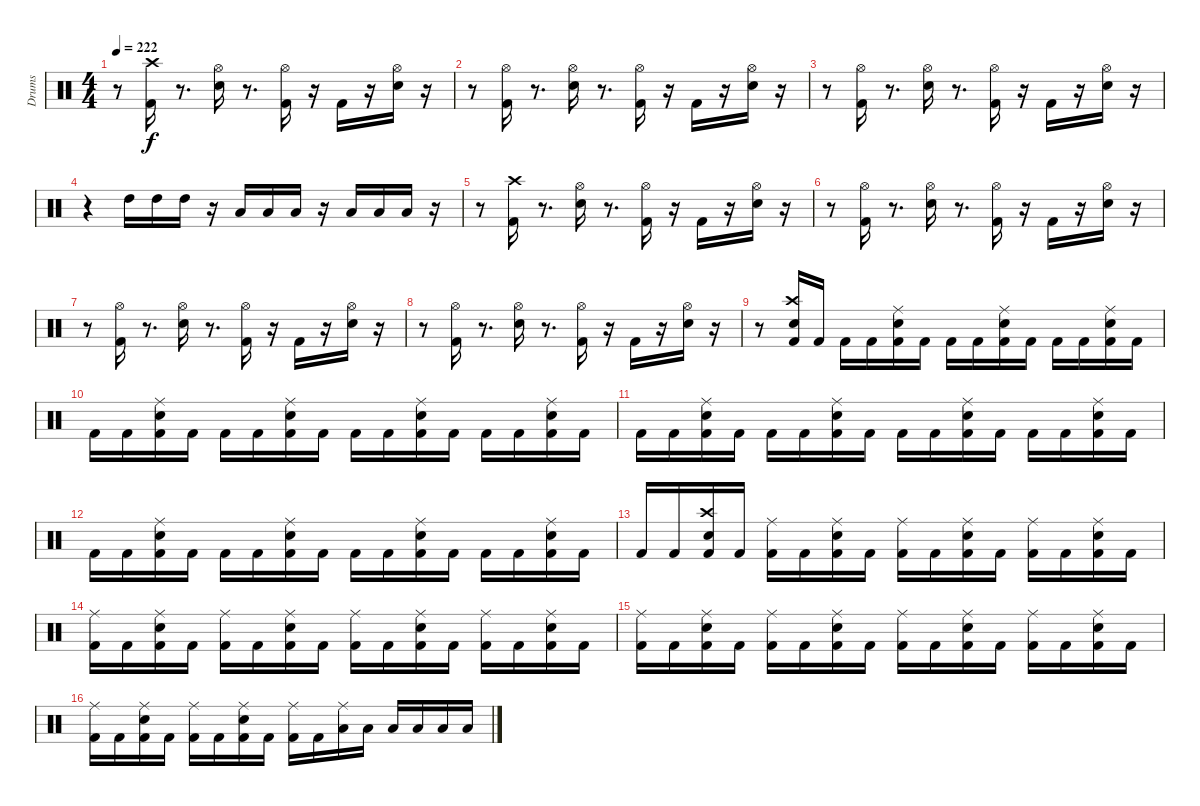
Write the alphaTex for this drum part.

\track ("Drums" "Drums") {instrument percussion}
\staff {score}
\articulation defaults
\ts (4 4)
\tempo 222
\clef neutral
\ks c
r.8{dy f} ("Kick (hit) 2" "Crash high (hit)").16 r.8{d} ("Snare (hit) 2" "Hi-Hat (open)").16 r.8{d} ("Kick (hit) 2" "Hi-Hat (open)").16 r.16 "Kick (hit) 2".16 r.16 ("Snare (hit) 2" "Hi-Hat (open)").16 r.16 |
r.8 ("Kick (hit) 2" "Hi-Hat (open)").16 r.8{d} ("Snare (hit) 2" "Hi-Hat (open)").16 r.8{d} ("Kick (hit) 2" "Hi-Hat (open)").16 r.16 "Kick (hit) 2".16 r.16 ("Snare (hit) 2" "Hi-Hat (open)").16 r.16 |
r.8 ("Kick (hit) 2" "Hi-Hat (open)").16 r.8{d} ("Snare (hit) 2" "Hi-Hat (open)").16 r.8{d} ("Kick (hit) 2" "Hi-Hat (open)").16 r.16 "Kick (hit) 2".16 r.16 ("Snare (hit) 2" "Hi-Hat (open)").16 r.16 |
r.4 "High Tom (hit)".16 "High Tom (hit)".16 "High Tom (hit)".16 r.16 "Low Tom (hit)".16 "Low Tom (hit)".16 "Low Tom (hit)".16 r.16 "Low Floor Tom (hit)".16 "Low Floor Tom (hit)".16 "Low Floor Tom (hit)".16 r.16 |
r.8 ("Kick (hit) 2" "Crash high (hit)").16 r.8{d} ("Snare (hit) 2" "Hi-Hat (open)").16 r.8{d} ("Kick (hit) 2" "Hi-Hat (open)").16 r.16 "Kick (hit) 2".16 r.16 ("Snare (hit) 2" "Hi-Hat (open)").16 r.16 |
r.8 ("Kick (hit) 2" "Hi-Hat (open)").16 r.8{d} ("Snare (hit) 2" "Hi-Hat (open)").16 r.8{d} ("Kick (hit) 2" "Hi-Hat (open)").16 r.16 "Kick (hit) 2".16 r.16 ("Snare (hit) 2" "Hi-Hat (open)").16 r.16 |
r.8 ("Kick (hit) 2" "Hi-Hat (open)").16 r.8{d} ("Snare (hit) 2" "Hi-Hat (open)").16 r.8{d} ("Kick (hit) 2" "Hi-Hat (open)").16 r.16 "Kick (hit) 2".16 r.16 ("Snare (hit) 2" "Hi-Hat (open)").16 r.16 |
r.8 ("Kick (hit) 2" "Hi-Hat (open)").16 r.8{d} ("Snare (hit) 2" "Hi-Hat (open)").16 r.8{d} ("Kick (hit) 2" "Hi-Hat (open)").16 r.16 "Kick (hit) 2".16 r.16 ("Snare (hit) 2" "Hi-Hat (open)").16 r.16 |
r.8 ("Kick (hit) 2" "Snare (hit) 2" "Crash high (hit)").16 "Kick (hit) 2".16 "Kick (hit) 2".16 "Kick (hit) 2".16 ("Kick (hit) 2" "Snare (hit) 2" "Ride (middle)").16 "Kick (hit) 2".16 "Kick (hit) 2".16 "Kick (hit) 2".16 ("Kick (hit) 2" "Snare (hit) 2" "Ride (middle)").16 "Kick (hit) 2".16 "Kick (hit) 2".16 "Kick (hit) 2".16 ("Kick (hit) 2" "Snare (hit) 2" "Ride (middle)").16 "Kick (hit) 2".16 |
"Kick (hit) 2".16 "Kick (hit) 2".16 ("Kick (hit) 2" "Snare (hit) 2" "Ride (middle)").16 "Kick (hit) 2".16 "Kick (hit) 2".16 "Kick (hit) 2".16 ("Kick (hit) 2" "Snare (hit) 2" "Ride (middle)").16 "Kick (hit) 2".16 "Kick (hit) 2".16 "Kick (hit) 2".16 ("Kick (hit) 2" "Snare (hit) 2" "Ride (middle)").16 "Kick (hit) 2".16 "Kick (hit) 2".16 "Kick (hit) 2".16 ("Kick (hit) 2" "Snare (hit) 2" "Ride (middle)").16 "Kick (hit) 2".16 |
"Kick (hit) 2".16 "Kick (hit) 2".16 ("Kick (hit) 2" "Snare (hit) 2" "Ride (middle)").16 "Kick (hit) 2".16 "Kick (hit) 2".16 "Kick (hit) 2".16 ("Kick (hit) 2" "Snare (hit) 2" "Ride (middle)").16 "Kick (hit) 2".16 "Kick (hit) 2".16 "Kick (hit) 2".16 ("Kick (hit) 2" "Snare (hit) 2" "Ride (middle)").16 "Kick (hit) 2".16 "Kick (hit) 2".16 "Kick (hit) 2".16 ("Kick (hit) 2" "Snare (hit) 2" "Ride (middle)").16 "Kick (hit) 2".16 |
"Kick (hit) 2".16 "Kick (hit) 2".16 ("Kick (hit) 2" "Snare (hit) 2" "Ride (middle)").16 "Kick (hit) 2".16 "Kick (hit) 2".16 "Kick (hit) 2".16 ("Kick (hit) 2" "Snare (hit) 2" "Ride (middle)").16 "Kick (hit) 2".16 "Kick (hit) 2".16 "Kick (hit) 2".16 ("Kick (hit) 2" "Snare (hit) 2" "Ride (middle)").16 "Kick (hit) 2".16 "Kick (hit) 2".16 "Kick (hit) 2".16 ("Kick (hit) 2" "Snare (hit) 2" "Ride (middle)").16 "Kick (hit) 2".16 |
"Kick (hit) 2".16 "Kick (hit) 2".16 ("Kick (hit) 2" "Snare (hit) 2" "Crash high (hit)").16 "Kick (hit) 2".16 ("Kick (hit) 2" "Ride (middle)").16 "Kick (hit) 2".16 ("Kick (hit) 2" "Snare (hit) 2" "Ride (middle)").16 "Kick (hit) 2".16 ("Kick (hit) 2" "Ride (middle)").16 "Kick (hit) 2".16 ("Kick (hit) 2" "Snare (hit) 2" "Ride (middle)").16 "Kick (hit) 2".16 ("Kick (hit) 2" "Ride (middle)").16 "Kick (hit) 2".16 ("Kick (hit) 2" "Snare (hit) 2" "Ride (middle)").16 "Kick (hit) 2".16 |
("Kick (hit) 2" "Ride (middle)").16 "Kick (hit) 2".16 ("Kick (hit) 2" "Snare (hit) 2" "Ride (middle)").16 "Kick (hit) 2".16 ("Kick (hit) 2" "Ride (middle)").16 "Kick (hit) 2".16 ("Kick (hit) 2" "Snare (hit) 2" "Ride (middle)").16 "Kick (hit) 2".16 ("Kick (hit) 2" "Ride (middle)").16 "Kick (hit) 2".16 ("Kick (hit) 2" "Snare (hit) 2" "Ride (middle)").16 "Kick (hit) 2".16 ("Kick (hit) 2" "Ride (middle)").16 "Kick (hit) 2".16 ("Kick (hit) 2" "Snare (hit) 2" "Ride (middle)").16 "Kick (hit) 2".16 |
("Kick (hit) 2" "Ride (middle)").16 "Kick (hit) 2".16 ("Kick (hit) 2" "Snare (hit) 2" "Ride (middle)").16 "Kick (hit) 2".16 ("Kick (hit) 2" "Ride (middle)").16 "Kick (hit) 2".16 ("Kick (hit) 2" "Snare (hit) 2" "Ride (middle)").16 "Kick (hit) 2".16 ("Kick (hit) 2" "Ride (middle)").16 "Kick (hit) 2".16 ("Kick (hit) 2" "Snare (hit) 2" "Ride (middle)").16 "Kick (hit) 2".16 ("Kick (hit) 2" "Ride (middle)").16 "Kick (hit) 2".16 ("Kick (hit) 2" "Snare (hit) 2" "Ride (middle)").16 "Kick (hit) 2".16 |
("Kick (hit) 2" "Ride (middle)").16 "Kick (hit) 2".16 ("Kick (hit) 2" "Snare (hit) 2" "Ride (middle)").16 "Kick (hit) 2".16 ("Kick (hit) 2" "Ride (middle)").16 "Kick (hit) 2".16 ("Kick (hit) 2" "Snare (hit) 2" "Ride (middle)").16 "Kick (hit) 2".16 ("Kick (hit) 2" "Ride (middle)").16 "Kick (hit) 2".16 ("Low Tom (hit)" "Ride (middle)").16 "Low Tom (hit)".16 "Low Tom (hit)".16 "Low Tom (hit)".16 "Low Floor Tom (hit)".16 "Low Floor Tom (hit)".16
